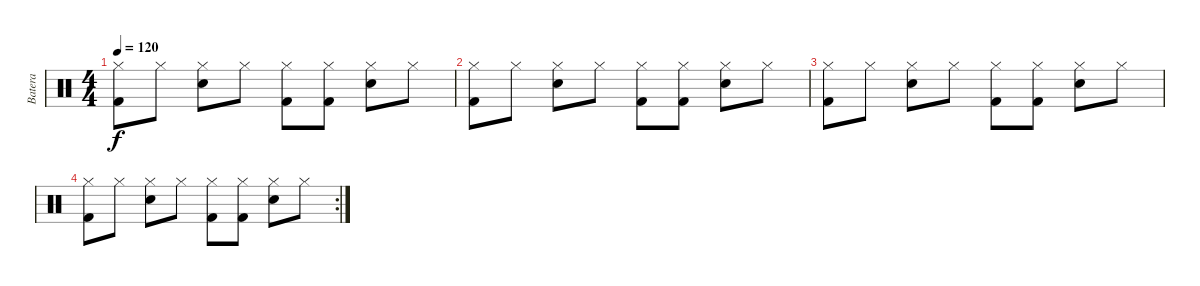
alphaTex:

\track ("Batera" "Batera") {instrument percussion}
\staff {score}
\articulation defaults
\ts (4 4)
\tempo 120
\clef neutral
\ks c
("Hi-Hat (closed)" "Kick (hit) 2").8{dy f} "Hi-Hat (closed)".8 ("Hi-Hat (closed)" "Snare (hit) 2").8 "Hi-Hat (closed)".8 ("Hi-Hat (closed)" "Kick (hit) 2").8 ("Hi-Hat (closed)" "Kick (hit) 2").8 ("Hi-Hat (closed)" "Snare (hit) 2").8 "Hi-Hat (closed)".8 |
("Hi-Hat (closed)" "Kick (hit) 2").8 "Hi-Hat (closed)".8 ("Hi-Hat (closed)" "Snare (hit) 2").8 "Hi-Hat (closed)".8 ("Hi-Hat (closed)" "Kick (hit) 2").8 ("Hi-Hat (closed)" "Kick (hit) 2").8 ("Hi-Hat (closed)" "Snare (hit) 2").8 "Hi-Hat (closed)".8 |
("Hi-Hat (closed)" "Kick (hit) 2").8 "Hi-Hat (closed)".8 ("Hi-Hat (closed)" "Snare (hit) 2").8 "Hi-Hat (closed)".8 ("Hi-Hat (closed)" "Kick (hit) 2").8 ("Hi-Hat (closed)" "Kick (hit) 2").8 ("Hi-Hat (closed)" "Snare (hit) 2").8 "Hi-Hat (closed)".8 |
\rc 2
("Hi-Hat (closed)" "Kick (hit) 2").8 "Hi-Hat (closed)".8 ("Hi-Hat (closed)" "Snare (hit) 2").8 "Hi-Hat (closed)".8 ("Hi-Hat (closed)" "Kick (hit) 2").8 ("Hi-Hat (closed)" "Kick (hit) 2").8 ("Hi-Hat (closed)" "Snare (hit) 2").8 "Hi-Hat (closed)".8
